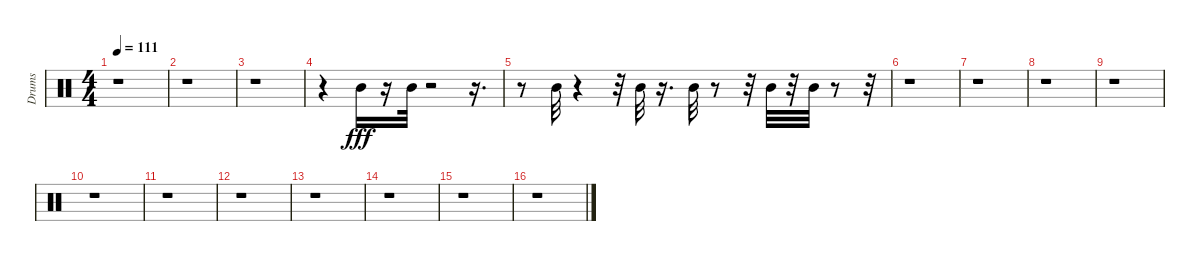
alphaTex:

\track ("Drums" "Drums") {instrument percussion}
\staff {score}
\articulation defaults
\ts (4 4)
\tempo 111
\clef neutral
\ks c
r.1{dy f} |
r.1 |
r.1 |
r.4 "Mid Tom (hit)".16{dy fff} r.16 "Mid Tom (hit)".32 r.2 r.16{d} |
r.8 "Mid Tom (hit)".32 r.4 r.32 "Mid Tom (hit)".32 r.16{d} "Mid Tom (hit)".32 r.8 r.32 "Mid Tom (hit)".32 r.32 "Mid Tom (hit)".32 r.8 r.32 |
r.1 |
r.1 |
r.1 |
r.1 |
r.1 |
r.1 |
r.1 |
r.1 |
r.1 |
r.1 |
r.1
